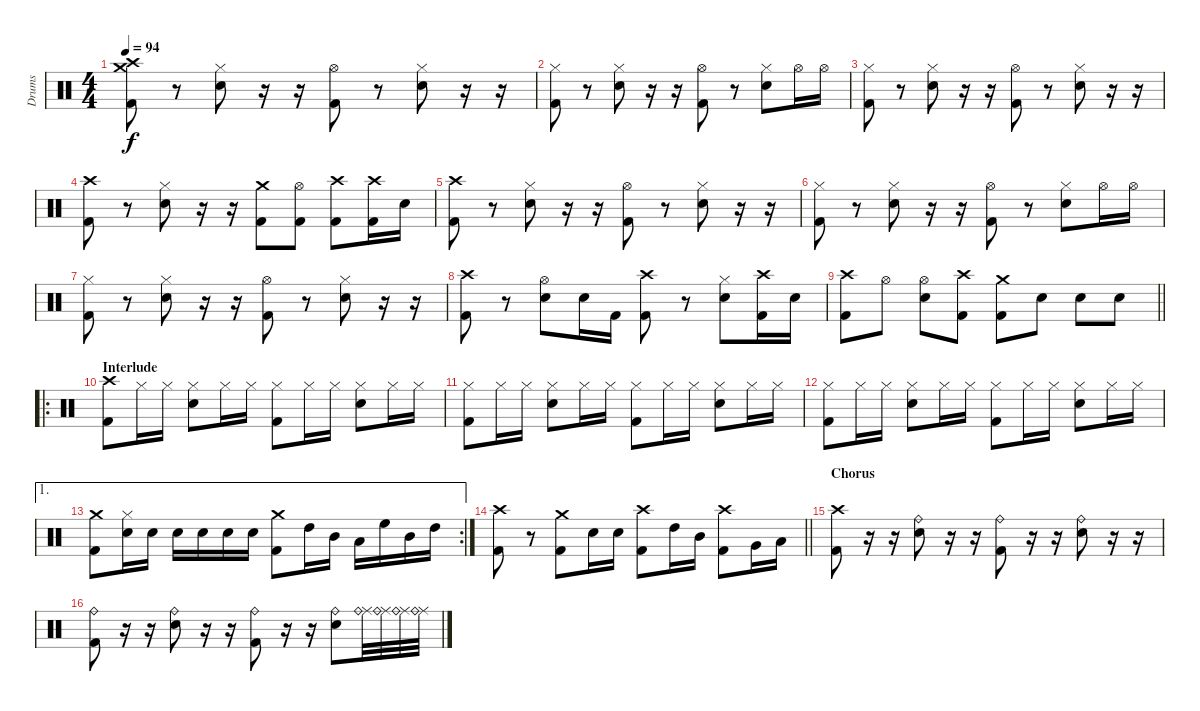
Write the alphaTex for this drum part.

\track ("Drums" "Drums") {instrument percussion}
\staff {score}
\articulation defaults
\ts (4 4)
\tempo 94
\clef neutral
\ks c
("Crash medium (hit)" "Crash high (hit)" "Kick (hit) 2").8{dy f} r.8 ("Hi-Hat (closed)" "Electric Snare (hit)").8 r.16 r.16 ("Hi-Hat (open)" "Kick (hit) 2").8 r.8 ("Hi-Hat (closed)" "Electric Snare (hit)").8 r.16 r.16 |
("Hi-Hat (closed)" "Kick (hit) 2").8 r.8 ("Hi-Hat (closed)" "Electric Snare (hit)").8 r.16 r.16 ("Hi-Hat (open)" "Kick (hit) 2").8 r.8 ("Hi-Hat (closed)" "Electric Snare (hit)").8 "Hi-Hat (open)".16 "Hi-Hat (open)".16 |
("Hi-Hat (closed)" "Kick (hit) 2").8 r.8 ("Hi-Hat (closed)" "Electric Snare (hit)").8 r.16 r.16 ("Hi-Hat (open)" "Kick (hit) 2").8 r.8 ("Hi-Hat (closed)" "Electric Snare (hit)").8 r.16 r.16 |
("Crash high (hit)" "Kick (hit) 2").8 r.8 ("Hi-Hat (closed)" "Electric Snare (hit)").8 r.16 r.16 ("Crash medium (hit)" "Kick (hit) 2").8 ("Hi-Hat (open)" "Kick (hit) 2").8 ("Crash high (hit)" "Kick (hit) 2").8 ("Crash high (hit)" "Kick (hit) 2").16 "Electric Snare (hit)".16 |
("Crash high (hit)" "Kick (hit) 2").8 r.8 ("Hi-Hat (closed)" "Electric Snare (hit)").8 r.16 r.16 ("Hi-Hat (open)" "Kick (hit) 2").8 r.8 ("Hi-Hat (closed)" "Electric Snare (hit)").8 r.16 r.16 |
("Hi-Hat (closed)" "Kick (hit) 2").8 r.8 ("Hi-Hat (closed)" "Electric Snare (hit)").8 r.16 r.16 ("Hi-Hat (open)" "Kick (hit) 2").8 r.8 ("Hi-Hat (closed)" "Electric Snare (hit)").8 "Hi-Hat (open)".16 "Hi-Hat (open)".16 |
("Hi-Hat (closed)" "Kick (hit) 2").8 r.8 ("Hi-Hat (closed)" "Electric Snare (hit)").8 r.16 r.16 ("Hi-Hat (open)" "Kick (hit) 2").8 r.8 ("Hi-Hat (closed)" "Electric Snare (hit)").8 r.16 r.16 |
("Crash high (hit)" "Kick (hit) 2").8 r.8 ("Hi-Hat (open)" "Electric Snare (hit)").8 "Electric Snare (hit)".16 "Kick (hit) 2".16 ("Crash high (hit)" "Kick (hit) 2").8 r.8 ("Hi-Hat (closed)" "Electric Snare (hit)").8 ("Crash high (hit)" "Kick (hit) 2").16 "Electric Snare (hit)".16 |
\barLineRight lightlight
("Crash high (hit)" "Kick (hit) 2").8 "Hi-Hat (open)".8 ("Hi-Hat (open)" "Electric Snare (hit)").8 ("Crash high (hit)" "Kick (hit) 2").8 ("Crash medium (hit)" "Kick (hit) 2").8 "Electric Snare (hit)".8 "Electric Snare (hit)".8 "Electric Snare (hit)".8 |
\ro
\section ("" "Interlude")
("Crash high (hit)" "Kick (hit) 2").8 "Hi-Hat (closed)".16 "Hi-Hat (closed)".16 ("Hi-Hat (closed)" "Electric Snare (hit)").8 "Hi-Hat (closed)".16 "Hi-Hat (closed)".16 ("Hi-Hat (closed)" "Kick (hit) 2").8 "Hi-Hat (closed)".16 "Hi-Hat (closed)".16 ("Hi-Hat (closed)" "Electric Snare (hit)").8 "Hi-Hat (closed)".16 "Hi-Hat (closed)".16 |
("Hi-Hat (closed)" "Kick (hit) 2").8 "Hi-Hat (closed)".16 "Hi-Hat (closed)".16 ("Hi-Hat (closed)" "Electric Snare (hit)").8 "Hi-Hat (closed)".16 "Hi-Hat (closed)".16 ("Hi-Hat (closed)" "Kick (hit) 2").8 "Hi-Hat (closed)".16 "Hi-Hat (closed)".16 ("Hi-Hat (closed)" "Electric Snare (hit)").8 "Hi-Hat (closed)".16 "Hi-Hat (closed)".16 |
("Hi-Hat (closed)" "Kick (hit) 2").8 "Hi-Hat (closed)".16 "Hi-Hat (closed)".16 ("Hi-Hat (closed)" "Electric Snare (hit)").8 "Hi-Hat (closed)".16 "Hi-Hat (closed)".16 ("Hi-Hat (closed)" "Kick (hit) 2").8 "Hi-Hat (closed)".16 "Hi-Hat (closed)".16 ("Hi-Hat (closed)" "Electric Snare (hit)").8 "Hi-Hat (closed)".16 "Hi-Hat (closed)".16 |
\ae 1
\rc 2
("Crash medium (hit)" "Kick (hit) 2").8 ("Hi-Hat (closed)" "Electric Snare (hit)").16 "Electric Snare (hit)".16 "Electric Snare (hit)".16 "Electric Snare (hit)".16 "Electric Snare (hit)".16 "Electric Snare (hit)".16 ("Crash medium (hit)" "Kick (hit) 2").8 "High Tom (hit)".16 "Mid Tom (hit)".16 "Low Tom (hit)".16 "High Floor Tom (hit)".16 "Mid Tom (hit)".16 "High Tom (hit)".16 |
\barLineRight lightlight
("Crash high (hit)" "Kick (hit) 2").8 r.8 ("Crash medium (hit)" "Kick (hit) 2").8 "Electric Snare (hit)".16 "Electric Snare (hit)".16 ("Crash high (hit)" "Kick (hit) 2").8 "High Tom (hit)".16 "Mid Tom (hit)".16 ("Crash high (hit)" "Kick (hit) 2").8 "Very Low Tom (hit)".16 "Low Floor Tom (hit)".16 |
\section ("" "Chorus")
("Crash high (hit)" "Kick (hit) 2").8 r.16 r.16 ("Ride (bell)" "Electric Snare (hit)").8 r.16 r.16 ("Ride (bell)" "Kick (hit) 2").8 r.16 r.16 ("Ride (bell)" "Electric Snare (hit)").8 r.16 r.16 |
("Ride (bell)" "Kick (hit) 2").8 r.16 r.16 ("Ride (bell)" "Electric Snare (hit)").8 r.16 r.16 ("Ride (bell)" "Kick (hit) 2").8 r.16 r.16 ("Ride (bell)" "Electric Snare (hit)").8 ("Ride (middle)" "Ride (bell)").32 ("Ride (middle)" "Ride (bell)").32 ("Ride (middle)" "Ride (bell)").32 ("Ride (middle)" "Ride (bell)").32
